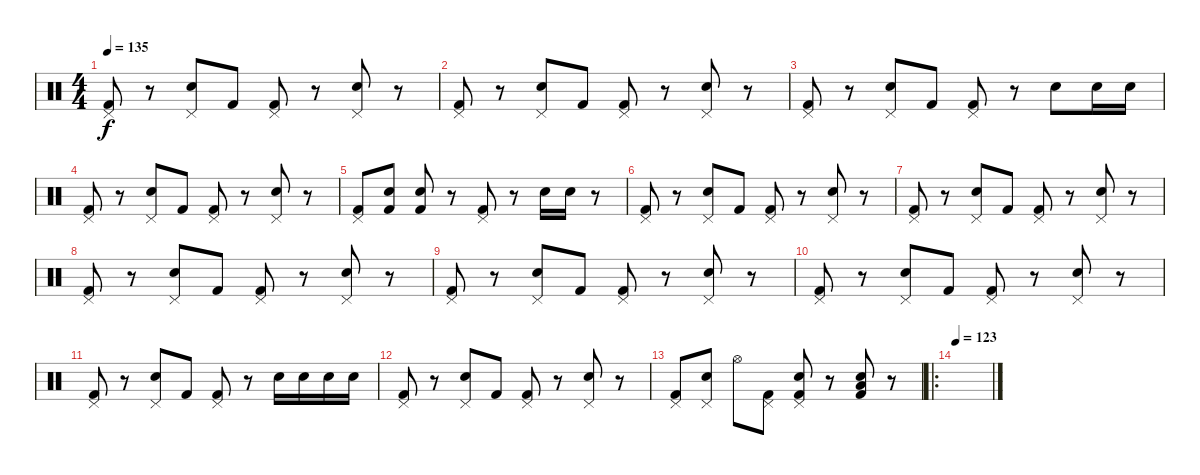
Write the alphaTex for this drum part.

\track "" {instrument percussion}
\staff {score}
\articulation defaults
\ts (4 4)
\tempo 135
\clef neutral
\ks c
("Kick (hit) 2" "Pedal Hi-Hat (hit)").8{dy f} r.8 ("Electric Snare (hit)" "Pedal Hi-Hat (hit)").8 "Kick (hit) 2".8 ("Kick (hit) 2" "Pedal Hi-Hat (hit)").8 r.8 ("Electric Snare (hit)" "Pedal Hi-Hat (hit)").8 r.8 |
("Kick (hit) 2" "Pedal Hi-Hat (hit)").8 r.8 ("Electric Snare (hit)" "Pedal Hi-Hat (hit)").8 "Kick (hit) 2".8 ("Kick (hit) 2" "Pedal Hi-Hat (hit)").8 r.8 ("Electric Snare (hit)" "Pedal Hi-Hat (hit)").8 r.8 |
("Kick (hit) 2" "Pedal Hi-Hat (hit)").8 r.8 ("Electric Snare (hit)" "Pedal Hi-Hat (hit)").8 "Kick (hit) 2".8 ("Kick (hit) 2" "Pedal Hi-Hat (hit)").8 r.8 "Electric Snare (hit)".8 "Electric Snare (hit)".16 "Electric Snare (hit)".16 |
("Kick (hit) 2" "Pedal Hi-Hat (hit)").8 r.8 ("Electric Snare (hit)" "Pedal Hi-Hat (hit)").8 "Kick (hit) 2".8 ("Kick (hit) 2" "Pedal Hi-Hat (hit)").8 r.8 ("Electric Snare (hit)" "Pedal Hi-Hat (hit)").8 r.8 |
("Kick (hit) 2" "Pedal Hi-Hat (hit)").8 ("Electric Snare (hit)" "Kick (hit) 2").8 ("Electric Snare (hit)" "Kick (hit) 2").8 r.8 ("Kick (hit) 2" "Pedal Hi-Hat (hit)").8 r.8 "Electric Snare (hit)".16 "Electric Snare (hit)".16 r.8 |
("Kick (hit) 2" "Pedal Hi-Hat (hit)").8 r.8 ("Electric Snare (hit)" "Pedal Hi-Hat (hit)").8 "Kick (hit) 2".8 ("Kick (hit) 2" "Pedal Hi-Hat (hit)").8 r.8 ("Electric Snare (hit)" "Pedal Hi-Hat (hit)").8 r.8 |
("Kick (hit) 2" "Pedal Hi-Hat (hit)").8 r.8 ("Electric Snare (hit)" "Pedal Hi-Hat (hit)").8 "Kick (hit) 2".8 ("Kick (hit) 2" "Pedal Hi-Hat (hit)").8 r.8 ("Electric Snare (hit)" "Pedal Hi-Hat (hit)").8 r.8 |
("Kick (hit) 2" "Pedal Hi-Hat (hit)").8 r.8 ("Electric Snare (hit)" "Pedal Hi-Hat (hit)").8 "Kick (hit) 2".8 ("Kick (hit) 2" "Pedal Hi-Hat (hit)").8 r.8 ("Electric Snare (hit)" "Pedal Hi-Hat (hit)").8 r.8 |
("Kick (hit) 2" "Pedal Hi-Hat (hit)").8 r.8 ("Electric Snare (hit)" "Pedal Hi-Hat (hit)").8 "Kick (hit) 2".8 ("Kick (hit) 2" "Pedal Hi-Hat (hit)").8 r.8 ("Electric Snare (hit)" "Pedal Hi-Hat (hit)").8 r.8 |
("Kick (hit) 2" "Pedal Hi-Hat (hit)").8 r.8 ("Electric Snare (hit)" "Pedal Hi-Hat (hit)").8 "Kick (hit) 2".8 ("Kick (hit) 2" "Pedal Hi-Hat (hit)").8 r.8 ("Electric Snare (hit)" "Pedal Hi-Hat (hit)").8 r.8 |
("Kick (hit) 2" "Pedal Hi-Hat (hit)").8 r.8 ("Electric Snare (hit)" "Pedal Hi-Hat (hit)").8 "Kick (hit) 2".8 ("Kick (hit) 2" "Pedal Hi-Hat (hit)").8 r.8 "Electric Snare (hit)".16 "Electric Snare (hit)".16 "Electric Snare (hit)".16 "Electric Snare (hit)".16 |
("Kick (hit) 2" "Pedal Hi-Hat (hit)").8 r.8 ("Electric Snare (hit)" "Pedal Hi-Hat (hit)").8 "Kick (hit) 2".8 ("Kick (hit) 2" "Pedal Hi-Hat (hit)").8 r.8 ("Electric Snare (hit)" "Pedal Hi-Hat (hit)").8 r.8 |
("Kick (hit) 2" "Pedal Hi-Hat (hit)").8 ("Electric Snare (hit)" "Pedal Hi-Hat (hit)").8 "Hi-Hat (open)".8 ("Kick (hit) 2" "Pedal Hi-Hat (hit)").8 ("Electric Snare (hit)" "Pedal Hi-Hat (hit)" "Kick (hit) 2").8 r.8 ("Electric Snare (hit)" "Low Tom (hit)" "Kick (hit) 2").8 r.8 |
\ro
\tempo 123
